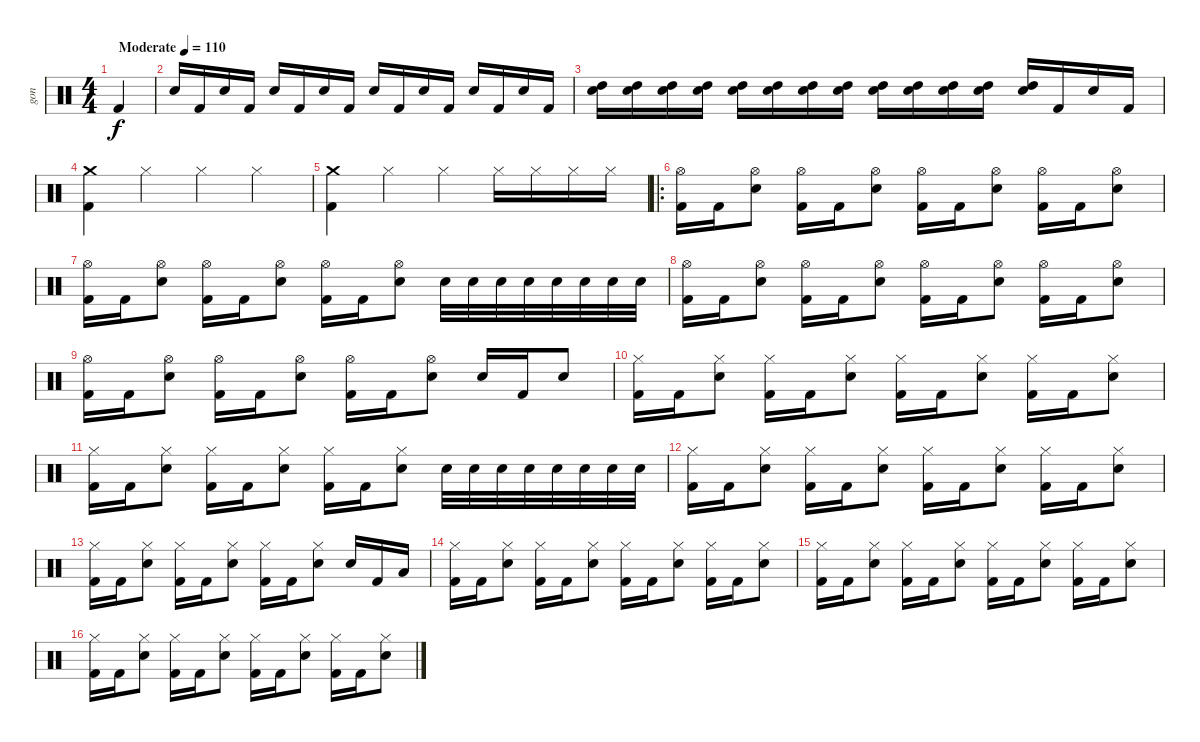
\track ("gon" "gon") {instrument percussion}
\staff {score}
\articulation defaults
\ts (4 4)
\tempo (110 "Moderate")
\clef neutral
\ks c "Kick (hit) 2".4{dy f}
|
"Electric Snare (hit)".16 "Kick (hit) 2".16 "Electric Snare (hit)".16 "Kick (hit) 2".16 "Electric Snare (hit)".16 "Kick (hit) 2".16 "Electric Snare (hit)".16 "Kick (hit) 2".16 "Electric Snare (hit)".16 "Kick (hit) 2".16 "Electric Snare (hit)".16 "Kick (hit) 2".16 "Electric Snare (hit)".16 "Kick (hit) 2".16 "Electric Snare (hit)".16 "Kick (hit) 2".16 |
("Snare (hit) 2" "High Tom (hit)").16 ("Snare (hit) 2" "High Tom (hit)").16 ("Snare (hit) 2" "High Tom (hit)").16 ("Snare (hit) 2" "High Tom (hit)").16 ("Snare (hit) 2" "High Tom (hit)").16 ("Snare (hit) 2" "High Tom (hit)").16 ("Snare (hit) 2" "High Tom (hit)").16 ("Snare (hit) 2" "High Tom (hit)").16 ("Snare (hit) 2" "High Tom (hit)").16 ("Snare (hit) 2" "High Tom (hit)").16 ("Snare (hit) 2" "High Tom (hit)").16 ("Snare (hit) 2" "High Tom (hit)").16 ("Snare (hit) 2" "High Tom (hit)").16 "Kick (hit) 2".16 "Electric Snare (hit)".16 "Kick (hit) 2".16 |
("Crash medium (hit)" "Kick (hit) 2").4 "Hi-Hat (closed)".4 "Hi-Hat (closed)".4 "Hi-Hat (closed)".4 |
("Crash medium (hit)" "Kick (hit) 2").4 "Hi-Hat (closed)".4 "Hi-Hat (closed)".4 "Hi-Hat (closed)".16 "Hi-Hat (closed)".16 "Hi-Hat (closed)".16 "Hi-Hat (closed)".16 |
\ro
("Hi-Hat (open)" "Kick (hit) 2").16 "Kick (hit) 2".16 ("Hi-Hat (open)" "Electric Snare (hit)").8 ("Hi-Hat (open)" "Kick (hit) 2").16 "Kick (hit) 2".16 ("Hi-Hat (open)" "Electric Snare (hit)").8 ("Hi-Hat (open)" "Kick (hit) 2").16 "Kick (hit) 2".16 ("Hi-Hat (open)" "Electric Snare (hit)").8 ("Hi-Hat (open)" "Kick (hit) 2").16 "Kick (hit) 2".16 ("Hi-Hat (open)" "Electric Snare (hit)").8 |
("Hi-Hat (open)" "Kick (hit) 2").16 "Kick (hit) 2".16 ("Hi-Hat (open)" "Electric Snare (hit)").8 ("Hi-Hat (open)" "Kick (hit) 2").16 "Kick (hit) 2".16 ("Hi-Hat (open)" "Electric Snare (hit)").8 ("Hi-Hat (open)" "Kick (hit) 2").16 "Kick (hit) 2".16 ("Hi-Hat (open)" "Electric Snare (hit)").8 "Electric Snare (hit)".32 "Electric Snare (hit)".32 "Electric Snare (hit)".32 "Electric Snare (hit)".32 "Electric Snare (hit)".32 "Electric Snare (hit)".32 "Electric Snare (hit)".32 "Electric Snare (hit)".32 |
("Hi-Hat (open)" "Kick (hit) 2").16 "Kick (hit) 2".16 ("Hi-Hat (open)" "Electric Snare (hit)").8 ("Hi-Hat (open)" "Kick (hit) 2").16 "Kick (hit) 2".16 ("Hi-Hat (open)" "Electric Snare (hit)").8 ("Hi-Hat (open)" "Kick (hit) 2").16 "Kick (hit) 2".16 ("Hi-Hat (open)" "Electric Snare (hit)").8 ("Hi-Hat (open)" "Kick (hit) 2").16 "Kick (hit) 2".16 ("Hi-Hat (open)" "Electric Snare (hit)").8 |
("Hi-Hat (open)" "Kick (hit) 2").16 "Kick (hit) 2".16 ("Hi-Hat (open)" "Electric Snare (hit)").8 ("Hi-Hat (open)" "Kick (hit) 2").16 "Kick (hit) 2".16 ("Hi-Hat (open)" "Electric Snare (hit)").8 ("Hi-Hat (open)" "Kick (hit) 2").16 "Kick (hit) 2".16 ("Hi-Hat (open)" "Electric Snare (hit)").8 "Electric Snare (hit)".16 "Kick (hit) 2".16 "Electric Snare (hit)".8 |
("Hi-Hat (closed)" "Kick (hit) 2").16 "Kick (hit) 2".16 ("Hi-Hat (closed)" "Electric Snare (hit)").8 ("Hi-Hat (closed)" "Kick (hit) 2").16 "Kick (hit) 2".16 ("Hi-Hat (closed)" "Electric Snare (hit)").8 ("Hi-Hat (closed)" "Kick (hit) 2").16 "Kick (hit) 2".16 ("Hi-Hat (closed)" "Electric Snare (hit)").8 ("Hi-Hat (closed)" "Kick (hit) 2").16 "Kick (hit) 2".16 ("Hi-Hat (closed)" "Electric Snare (hit)").8 |
("Hi-Hat (closed)" "Kick (hit) 2").16 "Kick (hit) 2".16 ("Hi-Hat (closed)" "Electric Snare (hit)").8 ("Hi-Hat (closed)" "Kick (hit) 2").16 "Kick (hit) 2".16 ("Hi-Hat (closed)" "Electric Snare (hit)").8 ("Hi-Hat (closed)" "Kick (hit) 2").16 "Kick (hit) 2".16 ("Hi-Hat (closed)" "Electric Snare (hit)").8 "Electric Snare (hit)".32 "Electric Snare (hit)".32 "Electric Snare (hit)".32 "Electric Snare (hit)".32 "Electric Snare (hit)".32 "Electric Snare (hit)".32 "Electric Snare (hit)".32 "Electric Snare (hit)".32 |
("Hi-Hat (closed)" "Kick (hit) 2").16 "Kick (hit) 2".16 ("Hi-Hat (closed)" "Electric Snare (hit)").8 ("Hi-Hat (closed)" "Kick (hit) 2").16 "Kick (hit) 2".16 ("Hi-Hat (closed)" "Electric Snare (hit)").8 ("Hi-Hat (closed)" "Kick (hit) 2").16 "Kick (hit) 2".16 ("Hi-Hat (closed)" "Electric Snare (hit)").8 ("Hi-Hat (closed)" "Kick (hit) 2").16 "Kick (hit) 2".16 ("Hi-Hat (closed)" "Electric Snare (hit)").8 |
("Hi-Hat (closed)" "Kick (hit) 2").16 "Kick (hit) 2".16 ("Hi-Hat (closed)" "Electric Snare (hit)").8 ("Hi-Hat (closed)" "Kick (hit) 2").16 "Kick (hit) 2".16 ("Hi-Hat (closed)" "Electric Snare (hit)").8 ("Hi-Hat (closed)" "Kick (hit) 2").16 "Kick (hit) 2".16 ("Hi-Hat (closed)" "Electric Snare (hit)").8 "Electric Snare (hit)".16 "Kick (hit) 2".16 "Low Tom (hit)".16 |
("Hi-Hat (closed)" "Kick (hit) 2").16 "Kick (hit) 2".16 ("Hi-Hat (closed)" "Electric Snare (hit)").8 ("Hi-Hat (closed)" "Kick (hit) 2").16 "Kick (hit) 2".16 ("Hi-Hat (closed)" "Electric Snare (hit)").8 ("Hi-Hat (closed)" "Kick (hit) 2").16 "Kick (hit) 2".16 ("Hi-Hat (closed)" "Electric Snare (hit)").8 ("Hi-Hat (closed)" "Kick (hit) 2").16 "Kick (hit) 2".16 ("Hi-Hat (closed)" "Electric Snare (hit)").8 |
("Hi-Hat (closed)" "Kick (hit) 2").16 "Kick (hit) 2".16 ("Hi-Hat (closed)" "Electric Snare (hit)").8 ("Hi-Hat (closed)" "Kick (hit) 2").16 "Kick (hit) 2".16 ("Hi-Hat (closed)" "Electric Snare (hit)").8 ("Hi-Hat (closed)" "Kick (hit) 2").16 "Kick (hit) 2".16 ("Hi-Hat (closed)" "Electric Snare (hit)").8 ("Hi-Hat (closed)" "Kick (hit) 2").16 "Kick (hit) 2".16 ("Hi-Hat (closed)" "Electric Snare (hit)").8 |
("Hi-Hat (closed)" "Kick (hit) 2").16 "Kick (hit) 2".16 ("Hi-Hat (closed)" "Electric Snare (hit)").8 ("Hi-Hat (closed)" "Kick (hit) 2").16 "Kick (hit) 2".16 ("Hi-Hat (closed)" "Electric Snare (hit)").8 ("Hi-Hat (closed)" "Kick (hit) 2").16 "Kick (hit) 2".16 ("Hi-Hat (closed)" "Electric Snare (hit)").8 ("Hi-Hat (closed)" "Kick (hit) 2").16 "Kick (hit) 2".16 ("Hi-Hat (closed)" "Electric Snare (hit)").8
